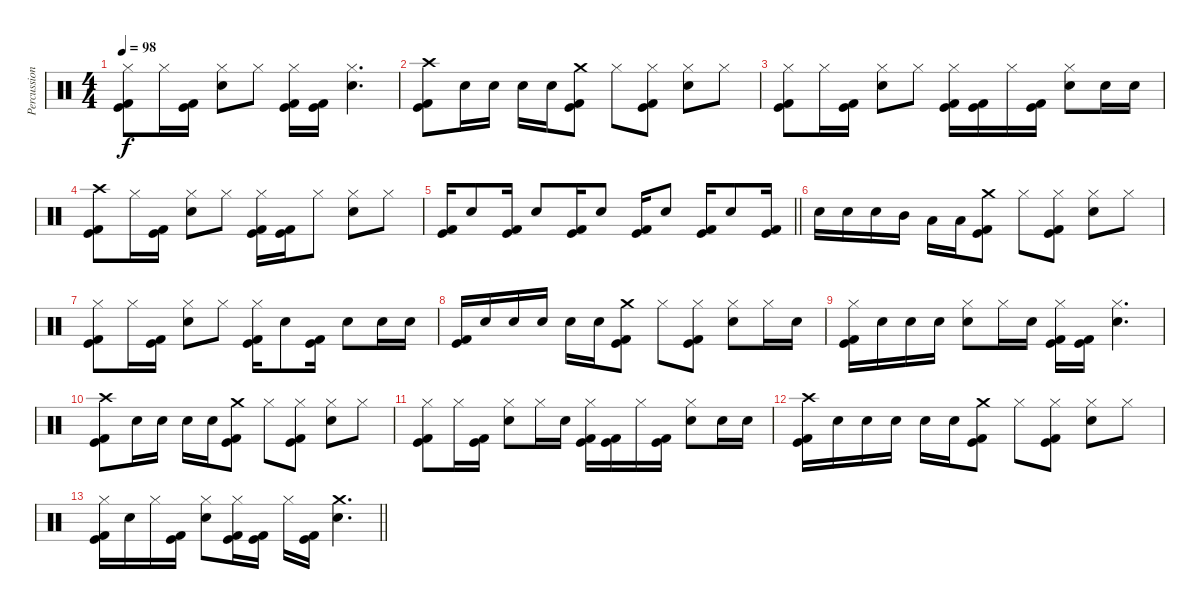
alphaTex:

\track ("Percussion" "Percussion") {instrument percussion}
\staff {score}
\articulation defaults
\ts (4 4)
\tempo 98
\clef neutral
\ks c
("Hi-Hat (closed)" "Kick (hit)" "Kick (hit) 2").8{dy f} "Hi-Hat (closed)".16 ("Kick (hit)" "Kick (hit) 2").16 ("Hi-Hat (closed)" "Electric Snare (hit)").8 "Hi-Hat (closed)".8 ("Hi-Hat (closed)" "Kick (hit)" "Kick (hit) 2").16 ("Kick (hit)" "Kick (hit) 2").16 ("Hi-Hat (closed)" "Electric Snare (hit)").4{d} |
("Crash high (hit)" "Kick (hit)" "Kick (hit) 2").8 "Electric Snare (hit)".16 "Electric Snare (hit)".16 "Electric Snare (hit)".16 "Electric Snare (hit)".16 ("Crash medium (hit)" "Kick (hit)" "Kick (hit) 2").8 "Hi-Hat (closed)".8 ("Hi-Hat (closed)" "Kick (hit)" "Kick (hit) 2").8 ("Hi-Hat (closed)" "Electric Snare (hit)").8 "Hi-Hat (closed)".8 |
("Hi-Hat (closed)" "Kick (hit)" "Kick (hit) 2").8 "Hi-Hat (closed)".16 ("Kick (hit)" "Kick (hit) 2").16 ("Hi-Hat (closed)" "Electric Snare (hit)").8 "Hi-Hat (closed)".8 ("Hi-Hat (closed)" "Kick (hit)" "Kick (hit) 2").16 ("Kick (hit)" "Kick (hit) 2").16 "Hi-Hat (closed)".16 ("Kick (hit)" "Kick (hit) 2").16 ("Hi-Hat (closed)" "Electric Snare (hit)").8 "Electric Snare (hit)".16 "Electric Snare (hit)".16 |
("Crash high (hit)" "Kick (hit)" "Kick (hit) 2").8 "Hi-Hat (closed)".16 ("Kick (hit)" "Kick (hit) 2").16 ("Hi-Hat (closed)" "Electric Snare (hit)").8 "Hi-Hat (closed)".8 ("Hi-Hat (closed)" "Kick (hit)" "Kick (hit) 2").16 ("Kick (hit)" "Kick (hit) 2").16 "Hi-Hat (closed)".8 ("Hi-Hat (closed)" "Electric Snare (hit)").8 "Hi-Hat (closed)".8 |
\barLineRight lightlight
("Kick (hit)" "Kick (hit) 2").16 "Electric Snare (hit)".8 ("Kick (hit)" "Kick (hit) 2").16 "Electric Snare (hit)".8 ("Kick (hit)" "Kick (hit) 2").16 "Electric Snare (hit)".8 ("Kick (hit)" "Kick (hit) 2").16 "Electric Snare (hit)".8 ("Kick (hit)" "Kick (hit) 2").16 "Electric Snare (hit)".8 ("Kick (hit)" "Kick (hit) 2").16 |
\section ("" "")
"Electric Snare (hit)".16 "Electric Snare (hit)".16 "Electric Snare (hit)".16 "Mid Tom (hit)".16 "Low Tom (hit)".16 "Low Tom (hit)".16 ("Crash medium (hit)" "Kick (hit)" "Kick (hit) 2").8 "Hi-Hat (closed)".8 ("Hi-Hat (closed)" "Kick (hit)" "Kick (hit) 2").8 ("Hi-Hat (closed)" "Electric Snare (hit)").8 "Hi-Hat (closed)".8 |
("Hi-Hat (closed)" "Kick (hit)" "Kick (hit) 2").8 "Hi-Hat (closed)".16 ("Kick (hit)" "Kick (hit) 2").16 ("Hi-Hat (closed)" "Electric Snare (hit)").8 "Hi-Hat (closed)".8 ("Hi-Hat (closed)" "Kick (hit)" "Kick (hit) 2").16 "Electric Snare (hit)".8 ("Kick (hit)" "Kick (hit) 2").16 "Electric Snare (hit)".8 "Electric Snare (hit)".16 "Electric Snare (hit)".16 |
("Kick (hit)" "Kick (hit) 2").16 "Electric Snare (hit)".16 "Electric Snare (hit)".16 "Electric Snare (hit)".16 "Electric Snare (hit)".16 "Electric Snare (hit)".16 ("Crash medium (hit)" "Kick (hit)" "Kick (hit) 2").8 "Hi-Hat (closed)".8 ("Hi-Hat (closed)" "Kick (hit)" "Kick (hit) 2").8 ("Hi-Hat (closed)" "Electric Snare (hit)").8 "Hi-Hat (closed)".16 "Electric Snare (hit)".16 |
("Hi-Hat (closed)" "Kick (hit)" "Kick (hit) 2").16 "Electric Snare (hit)".16 "Electric Snare (hit)".16 "Electric Snare (hit)".16 ("Hi-Hat (closed)" "Electric Snare (hit)").8 "Hi-Hat (closed)".16 "Electric Snare (hit)".16 ("Hi-Hat (closed)" "Kick (hit)" "Kick (hit) 2").16 ("Kick (hit)" "Kick (hit) 2").16 ("Hi-Hat (closed)" "Electric Snare (hit)").4{d} |
("Crash high (hit)" "Kick (hit)" "Kick (hit) 2").8 "Electric Snare (hit)".16 "Electric Snare (hit)".16 "Electric Snare (hit)".16 "Electric Snare (hit)".16 ("Crash medium (hit)" "Kick (hit)" "Kick (hit) 2").8 "Hi-Hat (closed)".8 ("Hi-Hat (closed)" "Kick (hit)" "Kick (hit) 2").8 ("Hi-Hat (closed)" "Electric Snare (hit)").8 "Hi-Hat (closed)".8 |
("Hi-Hat (closed)" "Kick (hit)" "Kick (hit) 2").8 "Hi-Hat (closed)".16 ("Kick (hit)" "Kick (hit) 2").16 ("Hi-Hat (closed)" "Electric Snare (hit)").8 "Hi-Hat (closed)".16 "Electric Snare (hit)".16 ("Hi-Hat (closed)" "Kick (hit)" "Kick (hit) 2").16 ("Kick (hit)" "Kick (hit) 2").16 "Hi-Hat (closed)".16 ("Kick (hit)" "Kick (hit) 2").16 ("Hi-Hat (closed)" "Electric Snare (hit)").8 "Electric Snare (hit)".16 "Electric Snare (hit)".16 |
("Crash high (hit)" "Kick (hit)" "Kick (hit) 2").16 "Electric Snare (hit)".16 "Electric Snare (hit)".16 "Electric Snare (hit)".16 "Electric Snare (hit)".16 "Electric Snare (hit)".16 ("Crash medium (hit)" "Kick (hit)" "Kick (hit) 2").8 "Hi-Hat (closed)".8 ("Hi-Hat (closed)" "Kick (hit)" "Kick (hit) 2").8 ("Hi-Hat (closed)" "Electric Snare (hit)").8 "Hi-Hat (closed)".8 |
\barLineRight lightlight
("Hi-Hat (closed)" "Kick (hit)" "Kick (hit) 2").16 "Electric Snare (hit)".16 "Hi-Hat (closed)".16 ("Kick (hit)" "Kick (hit) 2").16 ("Hi-Hat (closed)" "Electric Snare (hit)").8 ("Hi-Hat (closed)" "Kick (hit)" "Kick (hit) 2").16 ("Kick (hit)" "Kick (hit) 2").16 "Hi-Hat (closed)".16 ("Kick (hit)" "Kick (hit) 2").16 ("Crash medium (hit)" "Electric Snare (hit)").4{d}
